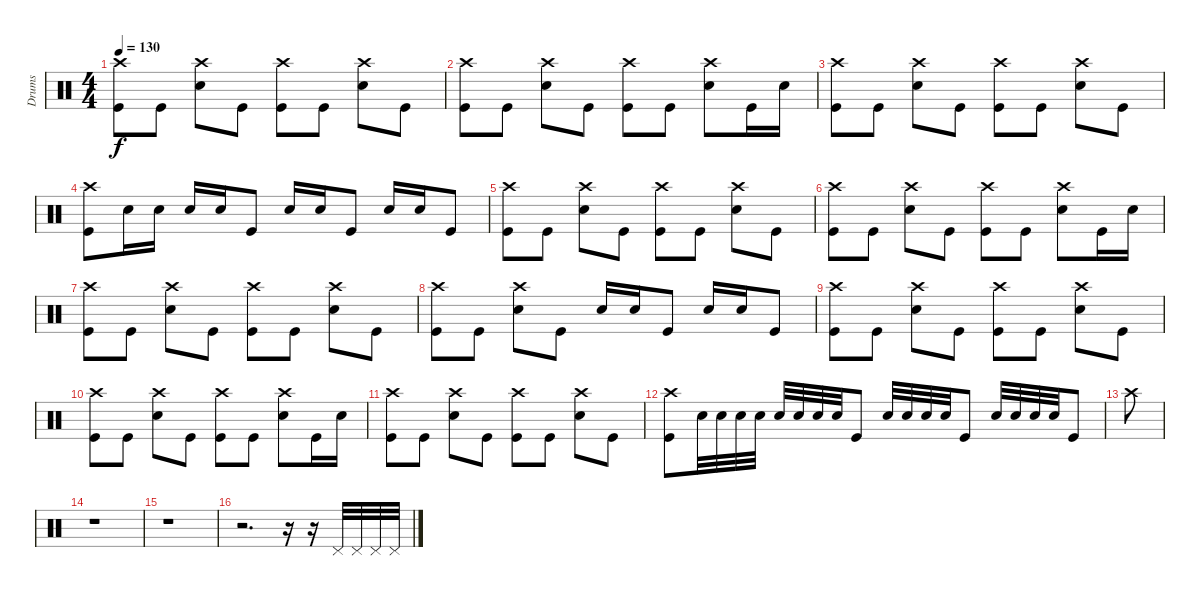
\track ("Drums" "Drums") {instrument percussion}
\staff {score}
\articulation defaults
\ts (4 4)
\tempo 130
\clef neutral
\ks c
("Crash high (hit)" "Kick (hit)").8{dy f} "Kick (hit)".8 ("Crash high (hit)" "Snare (hit) 2").8 "Kick (hit)".8 ("Crash high (hit)" "Kick (hit)").8 "Kick (hit)".8 ("Crash high (hit)" "Snare (hit) 2").8 "Kick (hit)".8 |
("Crash high (hit)" "Kick (hit)").8 "Kick (hit)".8 ("Crash high (hit)" "Snare (hit) 2").8 "Kick (hit)".8 ("Crash high (hit)" "Kick (hit)").8 "Kick (hit)".8 ("Crash high (hit)" "Snare (hit) 2").8 "Kick (hit)".16 "Snare (hit) 2".16 |
("Crash high (hit)" "Kick (hit)").8 "Kick (hit)".8 ("Crash high (hit)" "Snare (hit) 2").8 "Kick (hit)".8 ("Crash high (hit)" "Kick (hit)").8 "Kick (hit)".8 ("Crash high (hit)" "Snare (hit) 2").8 "Kick (hit)".8 |
("Crash high (hit)" "Kick (hit)").8 "Snare (hit) 2".16 "Snare (hit) 2".16 "Snare (hit) 2".16 "Snare (hit) 2".16 "Kick (hit)".8 "Snare (hit) 2".16 "Snare (hit) 2".16 "Kick (hit)".8 "Snare (hit) 2".16 "Snare (hit) 2".16 "Kick (hit)".8 |
("Crash high (hit)" "Kick (hit)").8 "Kick (hit)".8 ("Crash high (hit)" "Snare (hit) 2").8 "Kick (hit)".8 ("Crash high (hit)" "Kick (hit)").8 "Kick (hit)".8 ("Crash high (hit)" "Snare (hit) 2").8 "Kick (hit)".8 |
("Crash high (hit)" "Kick (hit)").8 "Kick (hit)".8 ("Crash high (hit)" "Snare (hit) 2").8 "Kick (hit)".8 ("Crash high (hit)" "Kick (hit)").8 "Kick (hit)".8 ("Crash high (hit)" "Snare (hit) 2").8 "Kick (hit)".16 "Snare (hit) 2".16 |
("Crash high (hit)" "Kick (hit)").8 "Kick (hit)".8 ("Crash high (hit)" "Snare (hit) 2").8 "Kick (hit)".8 ("Crash high (hit)" "Kick (hit)").8 "Kick (hit)".8 ("Crash high (hit)" "Snare (hit) 2").8 "Kick (hit)".8 |
("Crash high (hit)" "Kick (hit)").8 "Kick (hit)".8 ("Crash high (hit)" "Snare (hit) 2").8 "Kick (hit)".8 "Snare (hit) 2".16 "Snare (hit) 2".16 "Kick (hit)".8 "Snare (hit) 2".16 "Snare (hit) 2".16 "Kick (hit)".8 |
("Crash high (hit)" "Kick (hit)").8 "Kick (hit)".8 ("Crash high (hit)" "Snare (hit) 2").8 "Kick (hit)".8 ("Crash high (hit)" "Kick (hit)").8 "Kick (hit)".8 ("Crash high (hit)" "Snare (hit) 2").8 "Kick (hit)".8 |
("Crash high (hit)" "Kick (hit)").8 "Kick (hit)".8 ("Crash high (hit)" "Snare (hit) 2").8 "Kick (hit)".8 ("Crash high (hit)" "Kick (hit)").8 "Kick (hit)".8 ("Crash high (hit)" "Snare (hit) 2").8 "Kick (hit)".16 "Snare (hit) 2".16 |
("Crash high (hit)" "Kick (hit)").8 "Kick (hit)".8 ("Crash high (hit)" "Snare (hit) 2").8 "Kick (hit)".8 ("Crash high (hit)" "Kick (hit)").8 "Kick (hit)".8 ("Crash high (hit)" "Snare (hit) 2").8 "Kick (hit)".8 |
("Crash high (hit)" "Kick (hit)").8 "Snare (hit) 2".32 "Snare (hit) 2".32 "Snare (hit) 2".32 "Snare (hit) 2".32 "Snare (hit) 2".32 "Snare (hit) 2".32 "Snare (hit) 2".32 "Snare (hit) 2".32 "Kick (hit)".8 "Snare (hit) 2".32 "Snare (hit) 2".32 "Snare (hit) 2".32 "Snare (hit) 2".32 "Kick (hit)".8 "Snare (hit) 2".32 "Snare (hit) 2".32 "Snare (hit) 2".32 "Snare (hit) 2".32 "Kick (hit)".8 |
"Crash high (hit)".8 |
r.1 |
r.1 |
r.2{d} r.16 r.16 "Pedal Hi-Hat (hit)".32 "Pedal Hi-Hat (hit)".32 "Pedal Hi-Hat (hit)".32 "Pedal Hi-Hat (hit)".32
